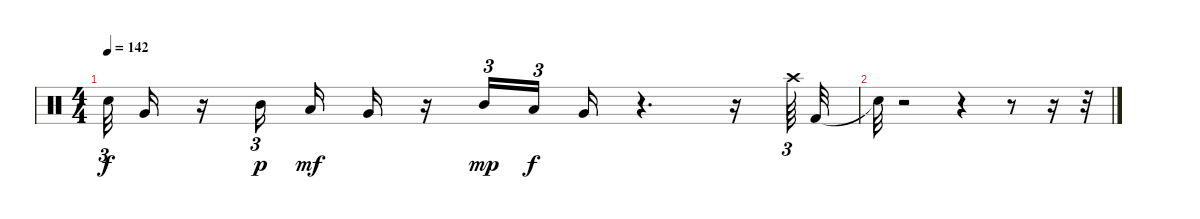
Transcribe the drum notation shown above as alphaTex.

\track "" {instrument percussion}
\staff {score}
\articulation defaults
\ts (4 4)
\tempo 142
\clef neutral
\ks c "Snare (hit)"{t}.32{tu (3 2) dy f} "Very Low Tom (hit)".16
r.16 "Mid Tom (hit)".16{tu (3 2) dy p} "Low Tom (hit)".16{dy mf} "Very Low Tom (hit)".16 r.16 "Mid Tom (hit)".16{tu (3 2) dy mp} "Low Tom (hit)".16{tu (3 2) dy f beam splitsecondary} "Very Low Tom (hit)".16 r.4{d} r.16 "Crash high (hit)".64{tu (3 2)} "Kick (hit) 2".32 |
"Snare (hit)"{t}.32 r.2 r.4 r.8 r.16 r.32
